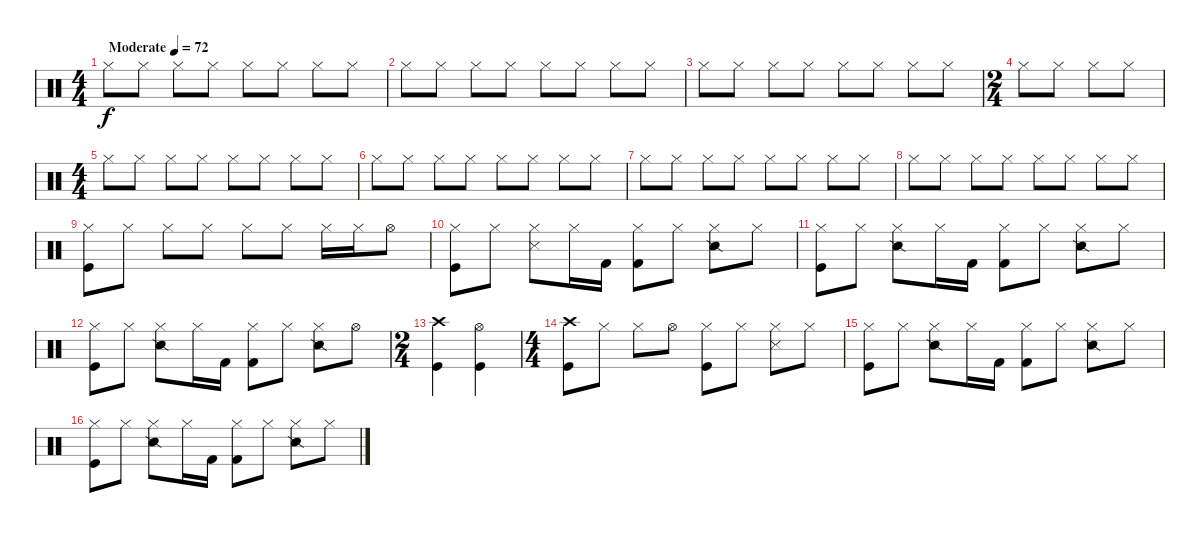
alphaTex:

\track "" {instrument percussion}
\staff {score}
\articulation defaults
\ts (4 4)
\tempo (72 "Moderate")
\clef neutral
\ks c "Hi-Hat (closed)".8{dy f} "Hi-Hat (closed)".8 "Hi-Hat (closed)".8 "Hi-Hat (closed)".8 "Hi-Hat (closed)".8 "Hi-Hat (closed)".8 "Hi-Hat (closed)".8 "Hi-Hat (closed)".8
|
"Hi-Hat (closed)".8 "Hi-Hat (closed)".8 "Hi-Hat (closed)".8 "Hi-Hat (closed)".8 "Hi-Hat (closed)".8 "Hi-Hat (closed)".8 "Hi-Hat (closed)".8 "Hi-Hat (closed)".8 |
"Hi-Hat (closed)".8 "Hi-Hat (closed)".8 "Hi-Hat (closed)".8 "Hi-Hat (closed)".8 "Hi-Hat (closed)".8 "Hi-Hat (closed)".8 "Hi-Hat (closed)".8 "Hi-Hat (closed)".8 |
\ts (2 4)
"Hi-Hat (closed)".8 "Hi-Hat (closed)".8 "Hi-Hat (closed)".8 "Hi-Hat (closed)".8 |
\ts (4 4)
"Hi-Hat (closed)".8 "Hi-Hat (closed)".8 "Hi-Hat (closed)".8 "Hi-Hat (closed)".8 "Hi-Hat (closed)".8 "Hi-Hat (closed)".8 "Hi-Hat (closed)".8 "Hi-Hat (closed)".8 |
"Hi-Hat (closed)".8 "Hi-Hat (closed)".8 "Hi-Hat (closed)".8 "Hi-Hat (closed)".8 "Hi-Hat (closed)".8 "Hi-Hat (closed)".8 "Hi-Hat (closed)".8 "Hi-Hat (closed)".8 |
"Hi-Hat (closed)".8 "Hi-Hat (closed)".8 "Hi-Hat (closed)".8 "Hi-Hat (closed)".8 "Hi-Hat (closed)".8 "Hi-Hat (closed)".8 "Hi-Hat (closed)".8 "Hi-Hat (closed)".8 |
"Hi-Hat (closed)".8 "Hi-Hat (closed)".8 "Hi-Hat (closed)".8 "Hi-Hat (closed)".8 "Hi-Hat (closed)".8 "Hi-Hat (closed)".8 "Hi-Hat (closed)".8 "Hi-Hat (closed)".8 |
("Kick (hit)" "Hi-Hat (closed)").8 "Hi-Hat (closed)".8 "Hi-Hat (closed)".8 "Hi-Hat (closed)".8 "Hi-Hat (closed)".8 "Hi-Hat (closed)".8 "Hi-Hat (closed)".16 "Hi-Hat (closed)".16 "Hi-Hat (open)".8 |
("Kick (hit)" "Hi-Hat (closed)").8 "Hi-Hat (closed)".8 ("Hi-Hat (closed)" "Metronome (hit)").8 "Hi-Hat (closed)".16 "Kick (hit) 2".16 ("Kick (hit) 2" "Hi-Hat (closed)").8 "Hi-Hat (closed)".8 ("Snare (side stick) 2" "Hi-Hat (closed)").8 "Hi-Hat (closed)".8 |
("Kick (hit)" "Hi-Hat (closed)").8 "Hi-Hat (closed)".8{txt ""} ("Snare (side stick) 2" "Hi-Hat (closed)").8 "Hi-Hat (closed)".16 "Kick (hit) 2".16 ("Kick (hit) 2" "Hi-Hat (closed)").8 "Hi-Hat (closed)".8 ("Snare (side stick) 2" "Hi-Hat (closed)").8 "Hi-Hat (closed)".8 |
("Kick (hit)" "Hi-Hat (closed)").8 "Hi-Hat (closed)".8 ("Snare (side stick) 2" "Hi-Hat (closed)").8 "Hi-Hat (closed)".16 "Kick (hit) 2".16 ("Kick (hit) 2" "Hi-Hat (closed)").8 "Hi-Hat (closed)".8 ("Snare (side stick) 2" "Hi-Hat (closed)").8 "Hi-Hat (open)".8 |
\ts (2 4)
("Kick (hit)" "Crash high (hit)").4 ("Hi-Hat (open)" "Kick (hit)").4 |
\ts (4 4)
("Crash high (hit)" "Kick (hit)").8 "Hi-Hat (closed)".8 "Hi-Hat (closed)".8 "Hi-Hat (open)".8 ("Kick (hit)" "Hi-Hat (closed)").8 "Hi-Hat (closed)".8 ("Snare (side stick) 3" "Hi-Hat (closed)").8 "Hi-Hat (closed)".8 |
("Kick (hit)" "Hi-Hat (closed)").8 "Hi-Hat (closed)".8 ("Snare (side stick) 2" "Hi-Hat (closed)").8 "Hi-Hat (closed)".16 "Kick (hit) 2".16 ("Kick (hit) 2" "Hi-Hat (closed)").8 "Hi-Hat (closed)".8 ("Snare (side stick) 2" "Hi-Hat (closed)").8 "Hi-Hat (closed)".8 |
("Kick (hit)" "Hi-Hat (closed)").8 "Hi-Hat (closed)".8 ("Snare (side stick) 2" "Hi-Hat (closed)").8 "Hi-Hat (closed)".16 "Kick (hit) 2".16 ("Kick (hit) 2" "Hi-Hat (closed)").8 "Hi-Hat (closed)".8 ("Snare (side stick) 2" "Hi-Hat (closed)").8 "Hi-Hat (closed)".8
